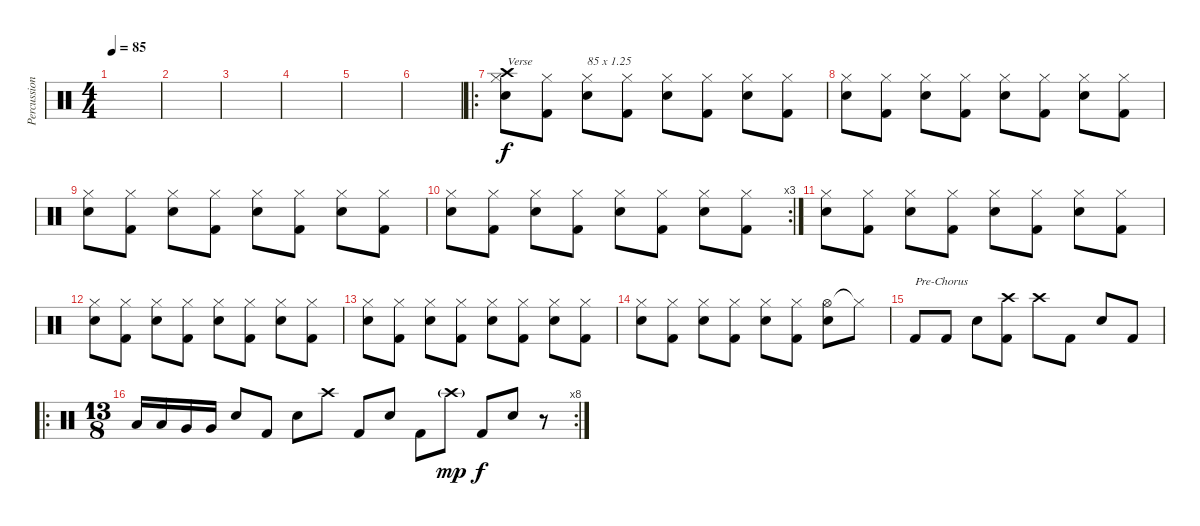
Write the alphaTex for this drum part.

\track ("Percussion" "Percussion") {instrument percussion}
\staff {score}
\articulation defaults
\ts (4 4)
\tempo 85
\clef neutral
\ks c
|
|
|
|
|
|
\ro
("Crash high (hit)" "Hi-Hat (closed)" "Electric Snare (hit)").8{txt "Verse"} ("Hi-Hat (closed)" "Kick (hit) 2").8 ("Hi-Hat (closed)" "Electric Snare (hit)").8{txt "85 x 1.25"} ("Hi-Hat (closed)" "Kick (hit) 2").8 ("Hi-Hat (closed)" "Electric Snare (hit)").8 ("Hi-Hat (closed)" "Kick (hit) 2").8 ("Hi-Hat (closed)" "Electric Snare (hit)").8 ("Hi-Hat (closed)" "Kick (hit) 2").8 |
("Hi-Hat (closed)" "Electric Snare (hit)").8 ("Hi-Hat (closed)" "Kick (hit) 2").8 ("Hi-Hat (closed)" "Electric Snare (hit)").8 ("Hi-Hat (closed)" "Kick (hit) 2").8 ("Hi-Hat (closed)" "Electric Snare (hit)").8 ("Hi-Hat (closed)" "Kick (hit) 2").8 ("Hi-Hat (closed)" "Electric Snare (hit)").8 ("Hi-Hat (closed)" "Kick (hit) 2").8 |
("Hi-Hat (closed)" "Electric Snare (hit)").8 ("Hi-Hat (closed)" "Kick (hit) 2").8 ("Hi-Hat (closed)" "Electric Snare (hit)").8 ("Hi-Hat (closed)" "Kick (hit) 2").8 ("Hi-Hat (closed)" "Electric Snare (hit)").8 ("Hi-Hat (closed)" "Kick (hit) 2").8 ("Hi-Hat (closed)" "Electric Snare (hit)").8 ("Hi-Hat (closed)" "Kick (hit) 2").8 |
\rc 3
("Hi-Hat (closed)" "Electric Snare (hit)").8 ("Hi-Hat (closed)" "Kick (hit) 2").8 ("Hi-Hat (closed)" "Electric Snare (hit)").8 ("Hi-Hat (closed)" "Kick (hit) 2").8 ("Hi-Hat (closed)" "Electric Snare (hit)").8 ("Hi-Hat (closed)" "Kick (hit) 2").8 ("Hi-Hat (closed)" "Electric Snare (hit)").8 ("Hi-Hat (closed)" "Kick (hit) 2").8 |
("Hi-Hat (closed)" "Electric Snare (hit)").8 ("Hi-Hat (closed)" "Kick (hit) 2").8 ("Hi-Hat (closed)" "Electric Snare (hit)").8 ("Hi-Hat (closed)" "Kick (hit) 2").8 ("Hi-Hat (closed)" "Electric Snare (hit)").8 ("Hi-Hat (closed)" "Kick (hit) 2").8 ("Hi-Hat (closed)" "Electric Snare (hit)").8 ("Hi-Hat (closed)" "Kick (hit) 2").8 |
("Hi-Hat (closed)" "Electric Snare (hit)").8 ("Hi-Hat (closed)" "Kick (hit) 2").8 ("Hi-Hat (closed)" "Electric Snare (hit)").8 ("Hi-Hat (closed)" "Kick (hit) 2").8 ("Hi-Hat (closed)" "Electric Snare (hit)").8 ("Hi-Hat (closed)" "Kick (hit) 2").8 ("Hi-Hat (closed)" "Electric Snare (hit)").8 ("Hi-Hat (closed)" "Kick (hit) 2").8 |
("Hi-Hat (closed)" "Electric Snare (hit)").8 ("Hi-Hat (closed)" "Kick (hit) 2").8 ("Hi-Hat (closed)" "Electric Snare (hit)").8 ("Hi-Hat (closed)" "Kick (hit) 2").8 ("Hi-Hat (closed)" "Electric Snare (hit)").8 ("Hi-Hat (closed)" "Kick (hit) 2").8 ("Hi-Hat (closed)" "Electric Snare (hit)").8 ("Hi-Hat (closed)" "Kick (hit) 2").8 |
("Hi-Hat (closed)" "Electric Snare (hit)").8 ("Hi-Hat (closed)" "Kick (hit) 2").8 ("Hi-Hat (closed)" "Electric Snare (hit)").8 ("Hi-Hat (closed)" "Kick (hit) 2").8 ("Hi-Hat (closed)" "Electric Snare (hit)").8 ("Hi-Hat (closed)" "Kick (hit) 2").8 ("Hi-Hat (open)" "Electric Snare (hit)").8 "Hi-Hat (closed)"{t}.8 |
"Kick (hit) 2".8{txt "Pre-Chorus"} "Kick (hit) 2".8 "Electric Snare (hit)".8 ("Crash high (hit)" "Kick (hit) 2").8 "Crash high (hit)".8 "Kick (hit) 2".8 "Electric Snare (hit)".8 "Kick (hit) 2".8 |
\ro
\rc 8
\ts (13 8)
"Low Tom (hit)".16 "Low Tom (hit)".16 "Very Low Tom (hit)".16 "Very Low Tom (hit)".16 "Electric Snare (hit)".8 "Kick (hit) 2".8 "Electric Snare (hit)".8 "Crash high (hit)".8 "Kick (hit) 2".8 "Electric Snare (hit)".8 "Kick (hit) 2".8 "Crash high (hit)"{g}.8{dy mp} "Kick (hit) 2".8{dy f} "Electric Snare (hit)".8 r.8
